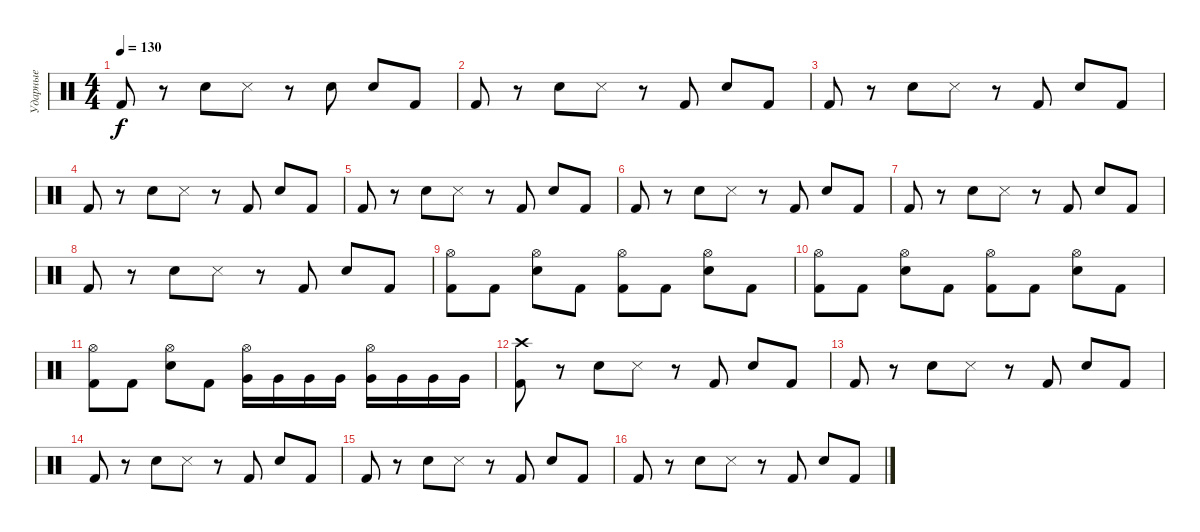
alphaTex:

\track ("Ударные" "Ударные") {instrument percussion}
\staff {score}
\articulation defaults
\ts (4 4)
\tempo 130
\clef neutral
\ks c "Kick (hit) 2".8{dy f}
r.8 "Electric Snare (hit)".8 "Snare (side stick) 3".8 r.8 "Electric Snare (hit)".8 "Electric Snare (hit)".8 "Kick (hit) 2".8 |
"Kick (hit) 2".8 r.8 "Electric Snare (hit)".8 "Snare (side stick) 3".8 r.8 "Kick (hit) 2".8 "Electric Snare (hit)".8 "Kick (hit) 2".8 |
"Kick (hit) 2".8 r.8 "Electric Snare (hit)".8 "Snare (side stick) 3".8 r.8 "Kick (hit) 2".8 "Electric Snare (hit)".8 "Kick (hit) 2".8 |
"Kick (hit) 2".8 r.8 "Electric Snare (hit)".8 "Snare (side stick) 3".8 r.8 "Kick (hit) 2".8 "Electric Snare (hit)".8 "Kick (hit) 2".8 |
"Kick (hit) 2".8 r.8 "Electric Snare (hit)".8 "Snare (side stick) 3".8 r.8 "Kick (hit) 2".8 "Electric Snare (hit)".8 "Kick (hit) 2".8 |
"Kick (hit) 2".8 r.8 "Electric Snare (hit)".8 "Snare (side stick) 3".8 r.8 "Kick (hit) 2".8 "Electric Snare (hit)".8 "Kick (hit) 2".8 |
"Kick (hit) 2".8 r.8 "Electric Snare (hit)".8 "Snare (side stick) 3".8 r.8 "Kick (hit) 2".8 "Electric Snare (hit)".8 "Kick (hit) 2".8 |
"Kick (hit) 2".8 r.8 "Electric Snare (hit)".8 "Snare (side stick) 3".8 r.8 "Kick (hit) 2".8 "Electric Snare (hit)".8 "Kick (hit) 2".8 |
("Kick (hit) 2" "Hi-Hat (open)").8 "Kick (hit) 2".8 ("Electric Snare (hit)" "Hi-Hat (open)").8 "Kick (hit) 2".8 ("Hi-Hat (open)" "Kick (hit) 2").8 "Kick (hit) 2".8 ("Electric Snare (hit)" "Hi-Hat (open)").8 "Kick (hit) 2".8 |
("Hi-Hat (open)" "Kick (hit) 2").8 "Kick (hit) 2".8 ("Hi-Hat (open)" "Electric Snare (hit)").8 "Kick (hit) 2".8 ("Kick (hit) 2" "Hi-Hat (open)").8 "Kick (hit) 2".8 ("Electric Snare (hit)" "Hi-Hat (open)").8 "Kick (hit) 2".8 |
("Hi-Hat (open)" "Kick (hit) 2").8 "Kick (hit) 2".8 ("Hi-Hat (open)" "Electric Snare (hit)").8 "Kick (hit) 2".8 ("Very Low Tom (hit)" "Hi-Hat (open)").16 "Very Low Tom (hit)".16 "Very Low Tom (hit)".16 "Very Low Tom (hit)".16 ("Very Low Tom (hit)" "Hi-Hat (open)").16 "Very Low Tom (hit)".16 "Very Low Tom (hit)".16 "Very Low Tom (hit)".16 |
("Crash high (hit)" "Kick (hit) 2").8 r.8 "Electric Snare (hit)".8 "Snare (side stick) 3".8 r.8 "Kick (hit) 2".8 "Electric Snare (hit)".8 "Kick (hit) 2".8 |
"Kick (hit) 2".8 r.8 "Electric Snare (hit)".8 "Snare (side stick) 3".8 r.8 "Kick (hit) 2".8 "Electric Snare (hit)".8 "Kick (hit) 2".8 |
"Kick (hit) 2".8 r.8 "Electric Snare (hit)".8 "Snare (side stick) 3".8 r.8 "Kick (hit) 2".8 "Electric Snare (hit)".8 "Kick (hit) 2".8 |
"Kick (hit) 2".8 r.8 "Electric Snare (hit)".8 "Snare (side stick) 3".8 r.8 "Kick (hit) 2".8 "Electric Snare (hit)".8 "Kick (hit) 2".8 |
"Kick (hit) 2".8 r.8 "Electric Snare (hit)".8 "Snare (side stick) 3".8 r.8 "Kick (hit) 2".8 "Electric Snare (hit)".8 "Kick (hit) 2".8
